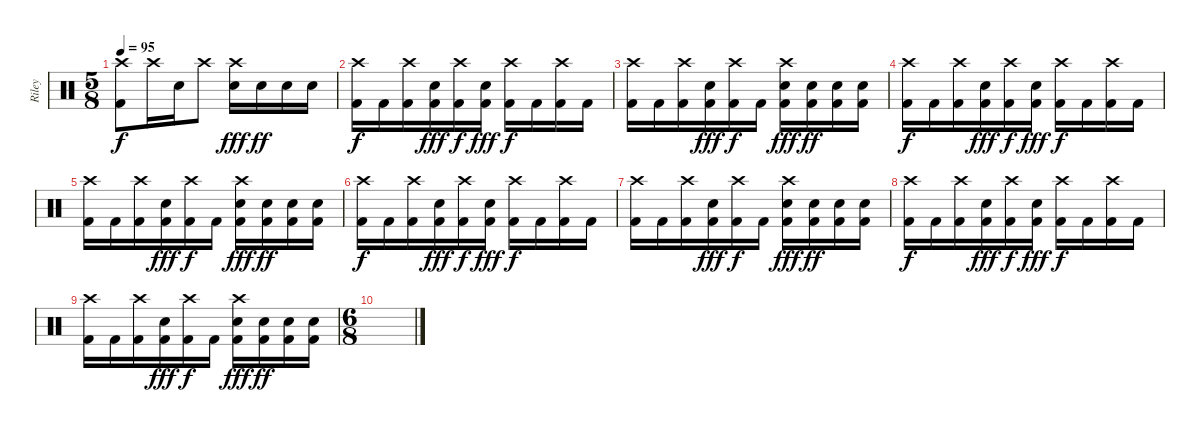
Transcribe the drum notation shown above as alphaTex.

\track ("Riley" "Riley") {instrument percussion}
\staff {score}
\articulation defaults
\ts (5 8)
\tempo 95
\clef neutral
\ks c
("Crash high (hit)" "Kick (hit) 2").8{dy f} "Crash high (hit)".16 "Electric Snare (hit)".16 "Crash high (hit)".8 ("Crash high (hit)" "Electric Snare (hit)").16{dy fff} "Electric Snare (hit)".16{dy ff} "Electric Snare (hit)".16 "Electric Snare (hit)".16 |
("Crash high (hit)" "Kick (hit) 2").16{dy f} "Kick (hit) 2".16 ("Crash high (hit)" "Kick (hit) 2").16 ("Electric Snare (hit)" "Kick (hit) 2").16{dy fff} ("Crash high (hit)" "Kick (hit) 2").16{dy f} ("Electric Snare (hit)" "Kick (hit) 2").16{dy fff} ("Crash high (hit)" "Kick (hit) 2").16{dy f} "Kick (hit) 2".16 ("Crash high (hit)" "Kick (hit) 2").16 "Kick (hit) 2".16 |
("Crash high (hit)" "Kick (hit) 2").16 "Kick (hit) 2".16 ("Crash high (hit)" "Kick (hit) 2").16 ("Electric Snare (hit)" "Kick (hit) 2").16{dy fff} ("Crash high (hit)" "Kick (hit) 2").16{dy f} "Kick (hit) 2".16 ("Crash high (hit)" "Electric Snare (hit)" "Kick (hit) 2").16{dy fff} ("Electric Snare (hit)" "Kick (hit) 2").16{dy ff} ("Electric Snare (hit)" "Kick (hit) 2").16 ("Electric Snare (hit)" "Kick (hit) 2").16 |
("Crash high (hit)" "Kick (hit) 2").16{dy f} "Kick (hit) 2".16 ("Crash high (hit)" "Kick (hit) 2").16 ("Electric Snare (hit)" "Kick (hit) 2").16{dy fff} ("Crash high (hit)" "Kick (hit) 2").16{dy f} ("Electric Snare (hit)" "Kick (hit) 2").16{dy fff} ("Crash high (hit)" "Kick (hit) 2").16{dy f} "Kick (hit) 2".16 ("Crash high (hit)" "Kick (hit) 2").16 "Kick (hit) 2".16 |
("Crash high (hit)" "Kick (hit) 2").16 "Kick (hit) 2".16 ("Crash high (hit)" "Kick (hit) 2").16 ("Electric Snare (hit)" "Kick (hit) 2").16{dy fff} ("Crash high (hit)" "Kick (hit) 2").16{dy f} "Kick (hit) 2".16 ("Crash high (hit)" "Electric Snare (hit)" "Kick (hit) 2").16{dy fff} ("Electric Snare (hit)" "Kick (hit) 2").16{dy ff} ("Electric Snare (hit)" "Kick (hit) 2").16 ("Electric Snare (hit)" "Kick (hit) 2").16 |
("Crash high (hit)" "Kick (hit) 2").16{dy f} "Kick (hit) 2".16 ("Crash high (hit)" "Kick (hit) 2").16 ("Electric Snare (hit)" "Kick (hit) 2").16{dy fff} ("Crash high (hit)" "Kick (hit) 2").16{dy f} ("Electric Snare (hit)" "Kick (hit) 2").16{dy fff} ("Crash high (hit)" "Kick (hit) 2").16{dy f} "Kick (hit) 2".16 ("Crash high (hit)" "Kick (hit) 2").16 "Kick (hit) 2".16 |
("Crash high (hit)" "Kick (hit) 2").16 "Kick (hit) 2".16 ("Crash high (hit)" "Kick (hit) 2").16 ("Electric Snare (hit)" "Kick (hit) 2").16{dy fff} ("Crash high (hit)" "Kick (hit) 2").16{dy f} "Kick (hit) 2".16 ("Crash high (hit)" "Electric Snare (hit)" "Kick (hit) 2").16{dy fff} ("Electric Snare (hit)" "Kick (hit) 2").16{dy ff} ("Electric Snare (hit)" "Kick (hit) 2").16 ("Electric Snare (hit)" "Kick (hit) 2").16 |
("Crash high (hit)" "Kick (hit) 2").16{dy f} "Kick (hit) 2".16 ("Crash high (hit)" "Kick (hit) 2").16 ("Electric Snare (hit)" "Kick (hit) 2").16{dy fff} ("Crash high (hit)" "Kick (hit) 2").16{dy f} ("Electric Snare (hit)" "Kick (hit) 2").16{dy fff} ("Crash high (hit)" "Kick (hit) 2").16{dy f} "Kick (hit) 2".16 ("Crash high (hit)" "Kick (hit) 2").16 "Kick (hit) 2".16 |
("Crash high (hit)" "Kick (hit) 2").16 "Kick (hit) 2".16 ("Crash high (hit)" "Kick (hit) 2").16 ("Electric Snare (hit)" "Kick (hit) 2").16{dy fff} ("Crash high (hit)" "Kick (hit) 2").16{dy f} "Kick (hit) 2".16 ("Crash high (hit)" "Electric Snare (hit)" "Kick (hit) 2").16{dy fff} ("Electric Snare (hit)" "Kick (hit) 2").16{dy ff} ("Electric Snare (hit)" "Kick (hit) 2").16 ("Electric Snare (hit)" "Kick (hit) 2").16 |
\ts (6 8)
